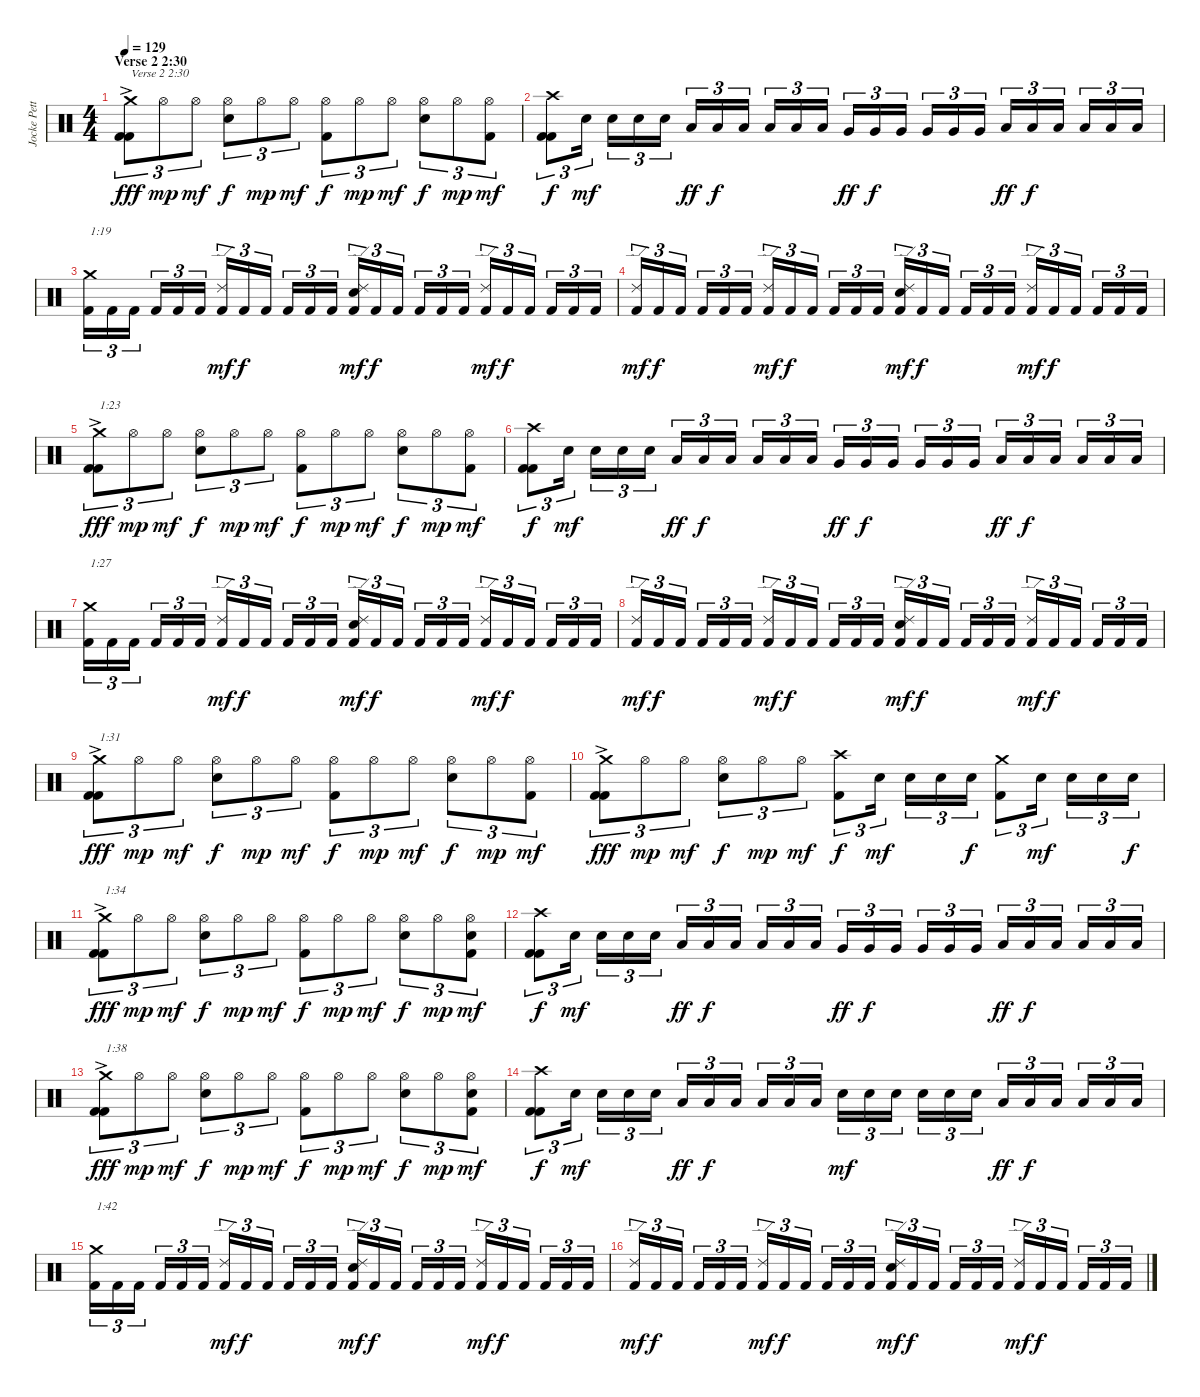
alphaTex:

\track ("Jocke Pettersson" "Jocke Pett") {instrument percussion}
\staff {score}
\articulation defaults
\ts (4 4)
\section ("" "Verse 2 2:30")
\tempo 129
\clef neutral
\ks c
("Kick (hit) 2" "Kick (hit) 2" "Crash medium (hit)"{ac}).8{tu (3 2) txt "Verse 2 2:30" dy fff} "Hi-Hat (open)".8{tu (3 2) dy mp} "Hi-Hat (open)".8{tu (3 2) dy mf} ("Electric Snare (hit)" "Hi-Hat (open)").8{tu (3 2) dy f} "Hi-Hat (open)".8{tu (3 2) dy mp} "Hi-Hat (open)".8{tu (3 2) dy mf} ("Kick (hit) 2" "Hi-Hat (open)").8{tu (3 2) dy f} "Hi-Hat (open)".8{tu (3 2) dy mp} "Hi-Hat (open)".8{tu (3 2) dy mf} ("Electric Snare (hit)" "Hi-Hat (open)").8{tu (3 2) dy f} "Hi-Hat (open)".8{tu (3 2) dy mp} ("Kick (hit) 2" "Hi-Hat (open)").8{tu (3 2) dy mf} |
("Kick (hit) 2" "Kick (hit) 2" "Crash high (hit)").8{tu (3 2) dy f} "Electric Snare (hit)".16{tu (3 2) dy mf} "Electric Snare (hit)".16{tu (3 2)} "Electric Snare (hit)".16{tu (3 2)} "Electric Snare (hit)".16{tu (3 2)} "Low Tom (hit)".16{tu (3 2) dy ff} "Low Tom (hit)".16{tu (3 2) dy f} "Low Tom (hit)".16{tu (3 2)} "Low Tom (hit)".16{tu (3 2)} "Low Tom (hit)".16{tu (3 2)} "Low Tom (hit)".16{tu (3 2)} "Very Low Tom (hit)".16{tu (3 2) dy ff} "Very Low Tom (hit)".16{tu (3 2) dy f} "Very Low Tom (hit)".16{tu (3 2)} "Very Low Tom (hit)".16{tu (3 2)} "Very Low Tom (hit)".16{tu (3 2)} "Very Low Tom (hit)".16{tu (3 2)} "Low Floor Tom (hit)".16{tu (3 2) dy ff} "Low Floor Tom (hit)".16{tu (3 2) dy f} "Low Floor Tom (hit)".16{tu (3 2)} "Low Floor Tom (hit)".16{tu (3 2)} "Low Floor Tom (hit)".16{tu (3 2)} "Low Floor Tom (hit)".16{tu (3 2)} |
("Kick (hit) 2" "Crash medium (hit)").16{tu (3 2) txt "1:19"} "Kick (hit) 2".16{tu (3 2)} "Kick (hit) 2".16{tu (3 2)} "Kick (hit) 2".16{tu (3 2)} "Kick (hit) 2".16{tu (3 2)} "Kick (hit) 2".16{tu (3 2)} ("Kick (hit) 2" "Ride (edge) 2").16{tu (3 2) dy mf} "Kick (hit) 2".16{tu (3 2) dy f} "Kick (hit) 2".16{tu (3 2)} "Kick (hit) 2".16{tu (3 2)} "Kick (hit) 2".16{tu (3 2)} "Kick (hit) 2".16{tu (3 2)} ("Kick (hit) 2" "Electric Snare (hit)" "Ride (edge) 2").16{tu (3 2) dy mf} "Kick (hit) 2".16{tu (3 2) dy f} "Kick (hit) 2".16{tu (3 2)} "Kick (hit) 2".16{tu (3 2)} "Kick (hit) 2".16{tu (3 2)} "Kick (hit) 2".16{tu (3 2)} ("Kick (hit) 2" "Ride (edge) 2").16{tu (3 2) dy mf} "Kick (hit) 2".16{tu (3 2) dy f} "Kick (hit) 2".16{tu (3 2)} "Kick (hit) 2".16{tu (3 2)} "Kick (hit) 2".16{tu (3 2)} "Kick (hit) 2".16{tu (3 2)} |
("Kick (hit) 2" "Ride (edge) 2").16{tu (3 2) dy mf} "Kick (hit) 2".16{tu (3 2) dy f} "Kick (hit) 2".16{tu (3 2)} "Kick (hit) 2".16{tu (3 2)} "Kick (hit) 2".16{tu (3 2)} "Kick (hit) 2".16{tu (3 2)} ("Kick (hit) 2" "Ride (edge) 2").16{tu (3 2) dy mf} "Kick (hit) 2".16{tu (3 2) dy f} "Kick (hit) 2".16{tu (3 2)} "Kick (hit) 2".16{tu (3 2)} "Kick (hit) 2".16{tu (3 2)} "Kick (hit) 2".16{tu (3 2)} ("Kick (hit) 2" "Electric Snare (hit)" "Ride (edge) 2").16{tu (3 2) dy mf} "Kick (hit) 2".16{tu (3 2) dy f} "Kick (hit) 2".16{tu (3 2)} "Kick (hit) 2".16{tu (3 2)} "Kick (hit) 2".16{tu (3 2)} "Kick (hit) 2".16{tu (3 2)} ("Kick (hit) 2" "Ride (edge) 2").16{tu (3 2) dy mf} "Kick (hit) 2".16{tu (3 2) dy f} "Kick (hit) 2".16{tu (3 2)} "Kick (hit) 2".16{tu (3 2)} "Kick (hit) 2".16{tu (3 2)} "Kick (hit) 2".16{tu (3 2)} |
("Kick (hit) 2" "Kick (hit) 2" "Crash medium (hit)"{ac}).8{tu (3 2) txt "1:23" dy fff} "Hi-Hat (open)".8{tu (3 2) dy mp} "Hi-Hat (open)".8{tu (3 2) dy mf} ("Electric Snare (hit)" "Hi-Hat (open)").8{tu (3 2) dy f} "Hi-Hat (open)".8{tu (3 2) dy mp} "Hi-Hat (open)".8{tu (3 2) dy mf} ("Kick (hit) 2" "Hi-Hat (open)").8{tu (3 2) dy f} "Hi-Hat (open)".8{tu (3 2) dy mp} "Hi-Hat (open)".8{tu (3 2) dy mf} ("Electric Snare (hit)" "Hi-Hat (open)").8{tu (3 2) dy f} "Hi-Hat (open)".8{tu (3 2) dy mp} ("Kick (hit) 2" "Hi-Hat (open)").8{tu (3 2) dy mf} |
("Kick (hit) 2" "Kick (hit) 2" "Crash high (hit)").8{tu (3 2) dy f} "Electric Snare (hit)".16{tu (3 2) dy mf} "Electric Snare (hit)".16{tu (3 2)} "Electric Snare (hit)".16{tu (3 2)} "Electric Snare (hit)".16{tu (3 2)} "Low Tom (hit)".16{tu (3 2) dy ff} "Low Tom (hit)".16{tu (3 2) dy f} "Low Tom (hit)".16{tu (3 2)} "Low Tom (hit)".16{tu (3 2)} "Low Tom (hit)".16{tu (3 2)} "Low Tom (hit)".16{tu (3 2)} "Very Low Tom (hit)".16{tu (3 2) dy ff} "Very Low Tom (hit)".16{tu (3 2) dy f} "Very Low Tom (hit)".16{tu (3 2)} "Very Low Tom (hit)".16{tu (3 2)} "Very Low Tom (hit)".16{tu (3 2)} "Very Low Tom (hit)".16{tu (3 2)} "Low Floor Tom (hit)".16{tu (3 2) dy ff} "Low Floor Tom (hit)".16{tu (3 2) dy f} "Low Floor Tom (hit)".16{tu (3 2)} "Low Floor Tom (hit)".16{tu (3 2)} "Low Floor Tom (hit)".16{tu (3 2)} "Low Floor Tom (hit)".16{tu (3 2)} |
("Kick (hit) 2" "Crash medium (hit)").16{tu (3 2) txt "1:27"} "Kick (hit) 2".16{tu (3 2)} "Kick (hit) 2".16{tu (3 2)} "Kick (hit) 2".16{tu (3 2)} "Kick (hit) 2".16{tu (3 2)} "Kick (hit) 2".16{tu (3 2)} ("Kick (hit) 2" "Ride (edge) 2").16{tu (3 2) dy mf} "Kick (hit) 2".16{tu (3 2) dy f} "Kick (hit) 2".16{tu (3 2)} "Kick (hit) 2".16{tu (3 2)} "Kick (hit) 2".16{tu (3 2)} "Kick (hit) 2".16{tu (3 2)} ("Kick (hit) 2" "Electric Snare (hit)" "Ride (edge) 2").16{tu (3 2) dy mf} "Kick (hit) 2".16{tu (3 2) dy f} "Kick (hit) 2".16{tu (3 2)} "Kick (hit) 2".16{tu (3 2)} "Kick (hit) 2".16{tu (3 2)} "Kick (hit) 2".16{tu (3 2)} ("Kick (hit) 2" "Ride (edge) 2").16{tu (3 2) dy mf} "Kick (hit) 2".16{tu (3 2) dy f} "Kick (hit) 2".16{tu (3 2)} "Kick (hit) 2".16{tu (3 2)} "Kick (hit) 2".16{tu (3 2)} "Kick (hit) 2".16{tu (3 2)} |
("Kick (hit) 2" "Ride (edge) 2").16{tu (3 2) dy mf} "Kick (hit) 2".16{tu (3 2) dy f} "Kick (hit) 2".16{tu (3 2)} "Kick (hit) 2".16{tu (3 2)} "Kick (hit) 2".16{tu (3 2)} "Kick (hit) 2".16{tu (3 2)} ("Kick (hit) 2" "Ride (edge) 2").16{tu (3 2) dy mf} "Kick (hit) 2".16{tu (3 2) dy f} "Kick (hit) 2".16{tu (3 2)} "Kick (hit) 2".16{tu (3 2)} "Kick (hit) 2".16{tu (3 2)} "Kick (hit) 2".16{tu (3 2)} ("Kick (hit) 2" "Electric Snare (hit)" "Ride (edge) 2").16{tu (3 2) dy mf} "Kick (hit) 2".16{tu (3 2) dy f} "Kick (hit) 2".16{tu (3 2)} "Kick (hit) 2".16{tu (3 2)} "Kick (hit) 2".16{tu (3 2)} "Kick (hit) 2".16{tu (3 2)} ("Kick (hit) 2" "Ride (edge) 2").16{tu (3 2) dy mf} "Kick (hit) 2".16{tu (3 2) dy f} "Kick (hit) 2".16{tu (3 2)} "Kick (hit) 2".16{tu (3 2)} "Kick (hit) 2".16{tu (3 2)} "Kick (hit) 2".16{tu (3 2)} |
("Kick (hit) 2" "Kick (hit) 2" "Crash medium (hit)"{ac}).8{tu (3 2) txt "1:31" dy fff} "Hi-Hat (open)".8{tu (3 2) dy mp} "Hi-Hat (open)".8{tu (3 2) dy mf} ("Electric Snare (hit)" "Hi-Hat (open)").8{tu (3 2) dy f} "Hi-Hat (open)".8{tu (3 2) dy mp} "Hi-Hat (open)".8{tu (3 2) dy mf} ("Kick (hit) 2" "Hi-Hat (open)").8{tu (3 2) dy f} "Hi-Hat (open)".8{tu (3 2) dy mp} "Hi-Hat (open)".8{tu (3 2) dy mf} ("Electric Snare (hit)" "Hi-Hat (open)").8{tu (3 2) dy f} "Hi-Hat (open)".8{tu (3 2) dy mp} ("Kick (hit) 2" "Hi-Hat (open)").8{tu (3 2) dy mf} |
("Kick (hit) 2" "Kick (hit) 2" "Crash medium (hit)"{ac}).8{tu (3 2) dy fff} "Hi-Hat (open)".8{tu (3 2) dy mp} "Hi-Hat (open)".8{tu (3 2) dy mf} ("Electric Snare (hit)" "Hi-Hat (open)").8{tu (3 2) dy f} "Hi-Hat (open)".8{tu (3 2) dy mp} "Hi-Hat (open)".8{tu (3 2) dy mf} ("Kick (hit) 2" "Crash high (hit)").8{tu (3 2) dy f} "Electric Snare (hit)".16{tu (3 2) dy mf} "Electric Snare (hit)".16{tu (3 2)} "Electric Snare (hit)".16{tu (3 2)} "Electric Snare (hit)".16{tu (3 2) dy f} ("Kick (hit) 2" "Crash medium (hit)").8{tu (3 2)} "Electric Snare (hit)".16{tu (3 2) dy mf} "Electric Snare (hit)".16{tu (3 2)} "Electric Snare (hit)".16{tu (3 2)} "Electric Snare (hit)".16{tu (3 2) dy f} |
("Kick (hit) 2" "Kick (hit) 2" "Crash medium (hit)"{ac}).8{tu (3 2) txt "1:34" dy fff} "Hi-Hat (open)".8{tu (3 2) dy mp} "Hi-Hat (open)".8{tu (3 2) dy mf} ("Electric Snare (hit)" "Hi-Hat (open)").8{tu (3 2) dy f} "Hi-Hat (open)".8{tu (3 2) dy mp} "Hi-Hat (open)".8{tu (3 2) dy mf} ("Kick (hit) 2" "Hi-Hat (open)").8{tu (3 2) dy f} "Hi-Hat (open)".8{tu (3 2) dy mp} "Hi-Hat (open)".8{tu (3 2) dy mf} ("Electric Snare (hit)" "Hi-Hat (open)").8{tu (3 2) dy f} "Hi-Hat (open)".8{tu (3 2) dy mp} ("Kick (hit) 2" "Electric Snare (hit)" "Hi-Hat (open)").8{tu (3 2) dy mf} |
("Kick (hit) 2" "Kick (hit) 2" "Crash high (hit)").8{tu (3 2) dy f} "Electric Snare (hit)".16{tu (3 2) dy mf} "Electric Snare (hit)".16{tu (3 2)} "Electric Snare (hit)".16{tu (3 2)} "Electric Snare (hit)".16{tu (3 2)} "Low Tom (hit)".16{tu (3 2) dy ff} "Low Tom (hit)".16{tu (3 2) dy f} "Low Tom (hit)".16{tu (3 2)} "Low Tom (hit)".16{tu (3 2)} "Low Tom (hit)".16{tu (3 2)} "Low Tom (hit)".16{tu (3 2)} "Very Low Tom (hit)".16{tu (3 2) dy ff} "Very Low Tom (hit)".16{tu (3 2) dy f} "Very Low Tom (hit)".16{tu (3 2)} "Very Low Tom (hit)".16{tu (3 2)} "Very Low Tom (hit)".16{tu (3 2)} "Very Low Tom (hit)".16{tu (3 2)} "Low Floor Tom (hit)".16{tu (3 2) dy ff} "Low Floor Tom (hit)".16{tu (3 2) dy f} "Low Floor Tom (hit)".16{tu (3 2)} "Low Floor Tom (hit)".16{tu (3 2)} "Low Floor Tom (hit)".16{tu (3 2)} "Low Floor Tom (hit)".16{tu (3 2)} |
("Kick (hit) 2" "Kick (hit) 2" "Crash medium (hit)"{ac}).8{tu (3 2) txt "1:38" dy fff} "Hi-Hat (open)".8{tu (3 2) dy mp} "Hi-Hat (open)".8{tu (3 2) dy mf} ("Electric Snare (hit)" "Hi-Hat (open)").8{tu (3 2) dy f} "Hi-Hat (open)".8{tu (3 2) dy mp} "Hi-Hat (open)".8{tu (3 2) dy mf} ("Kick (hit) 2" "Hi-Hat (open)").8{tu (3 2) dy f} "Hi-Hat (open)".8{tu (3 2) dy mp} "Hi-Hat (open)".8{tu (3 2) dy mf} ("Electric Snare (hit)" "Hi-Hat (open)").8{tu (3 2) dy f} "Hi-Hat (open)".8{tu (3 2) dy mp} ("Kick (hit) 2" "Electric Snare (hit)" "Hi-Hat (open)").8{tu (3 2) dy mf} |
("Kick (hit) 2" "Kick (hit) 2" "Crash high (hit)").8{tu (3 2) dy f} "Electric Snare (hit)".16{tu (3 2) dy mf} "Electric Snare (hit)".16{tu (3 2)} "Electric Snare (hit)".16{tu (3 2)} "Electric Snare (hit)".16{tu (3 2)} "Low Tom (hit)".16{tu (3 2) dy ff} "Low Tom (hit)".16{tu (3 2) dy f} "Low Tom (hit)".16{tu (3 2)} "Low Tom (hit)".16{tu (3 2)} "Low Tom (hit)".16{tu (3 2)} "Low Tom (hit)".16{tu (3 2)} "Electric Snare (hit)".16{tu (3 2) dy mf} "Electric Snare (hit)".16{tu (3 2)} "Electric Snare (hit)".16{tu (3 2)} "Electric Snare (hit)".16{tu (3 2)} "Electric Snare (hit)".16{tu (3 2)} "Electric Snare (hit)".16{tu (3 2)} "Low Tom (hit)".16{tu (3 2) dy ff} "Low Tom (hit)".16{tu (3 2) dy f} "Low Tom (hit)".16{tu (3 2)} "Low Tom (hit)".16{tu (3 2)} "Low Tom (hit)".16{tu (3 2)} "Low Tom (hit)".16{tu (3 2)} |
("Kick (hit) 2" "Crash medium (hit)").16{tu (3 2) txt "1:42"} "Kick (hit) 2".16{tu (3 2)} "Kick (hit) 2".16{tu (3 2)} "Kick (hit) 2".16{tu (3 2)} "Kick (hit) 2".16{tu (3 2)} "Kick (hit) 2".16{tu (3 2)} ("Kick (hit) 2" "Ride (edge) 2").16{tu (3 2) dy mf} "Kick (hit) 2".16{tu (3 2) dy f} "Kick (hit) 2".16{tu (3 2)} "Kick (hit) 2".16{tu (3 2)} "Kick (hit) 2".16{tu (3 2)} "Kick (hit) 2".16{tu (3 2)} ("Kick (hit) 2" "Electric Snare (hit)" "Ride (edge) 2").16{tu (3 2) dy mf} "Kick (hit) 2".16{tu (3 2) dy f} "Kick (hit) 2".16{tu (3 2)} "Kick (hit) 2".16{tu (3 2)} "Kick (hit) 2".16{tu (3 2)} "Kick (hit) 2".16{tu (3 2)} ("Kick (hit) 2" "Ride (edge) 2").16{tu (3 2) dy mf} "Kick (hit) 2".16{tu (3 2) dy f} "Kick (hit) 2".16{tu (3 2)} "Kick (hit) 2".16{tu (3 2)} "Kick (hit) 2".16{tu (3 2)} "Kick (hit) 2".16{tu (3 2)} |
("Kick (hit) 2" "Ride (edge) 2").16{tu (3 2) dy mf} "Kick (hit) 2".16{tu (3 2) dy f} "Kick (hit) 2".16{tu (3 2)} "Kick (hit) 2".16{tu (3 2)} "Kick (hit) 2".16{tu (3 2)} "Kick (hit) 2".16{tu (3 2)} ("Kick (hit) 2" "Ride (edge) 2").16{tu (3 2) dy mf} "Kick (hit) 2".16{tu (3 2) dy f} "Kick (hit) 2".16{tu (3 2)} "Kick (hit) 2".16{tu (3 2)} "Kick (hit) 2".16{tu (3 2)} "Kick (hit) 2".16{tu (3 2)} ("Kick (hit) 2" "Electric Snare (hit)" "Ride (edge) 2").16{tu (3 2) dy mf} "Kick (hit) 2".16{tu (3 2) dy f} "Kick (hit) 2".16{tu (3 2)} "Kick (hit) 2".16{tu (3 2)} "Kick (hit) 2".16{tu (3 2)} "Kick (hit) 2".16{tu (3 2)} ("Kick (hit) 2" "Ride (edge) 2").16{tu (3 2) dy mf} "Kick (hit) 2".16{tu (3 2) dy f} "Kick (hit) 2".16{tu (3 2)} "Kick (hit) 2".16{tu (3 2)} "Kick (hit) 2".16{tu (3 2)} "Kick (hit) 2".16{tu (3 2)}
